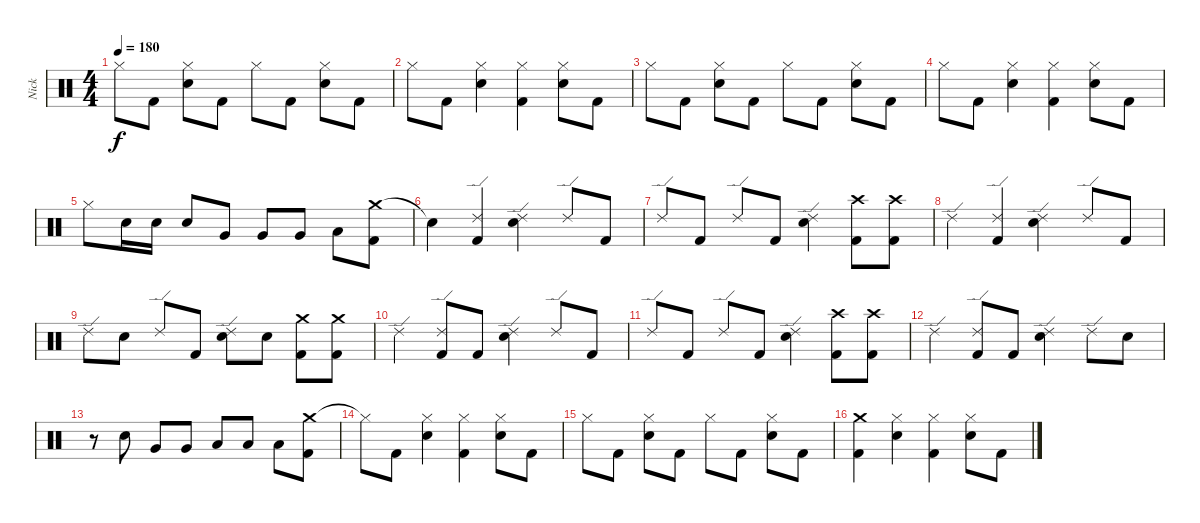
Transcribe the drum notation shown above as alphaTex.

\track ("Nick" "Nick") {instrument percussion}
\staff {score}
\articulation defaults
\ts (4 4)
\tempo 180
\clef neutral
\ks c "Hi-Hat (closed)".8{dy f} "Kick (hit) 2".8
("Hi-Hat (closed)" "Electric Snare (hit)").8 "Kick (hit) 2".8 "Hi-Hat (closed)".8 "Kick (hit) 2".8 ("Hi-Hat (closed)" "Electric Snare (hit)").8 "Kick (hit) 2".8 |
"Hi-Hat (closed)".8 "Kick (hit) 2".8 ("Hi-Hat (closed)" "Electric Snare (hit)").4 ("Hi-Hat (closed)" "Kick (hit) 2").4 ("Hi-Hat (closed)" "Electric Snare (hit)").8 "Kick (hit) 2".8 |
"Hi-Hat (closed)".8 "Kick (hit) 2".8 ("Hi-Hat (closed)" "Electric Snare (hit)").8 "Kick (hit) 2".8 "Hi-Hat (closed)".8 "Kick (hit) 2".8 ("Hi-Hat (closed)" "Electric Snare (hit)").8 "Kick (hit) 2".8 |
"Hi-Hat (closed)".8 "Kick (hit) 2".8 ("Hi-Hat (closed)" "Electric Snare (hit)").4 ("Hi-Hat (closed)" "Kick (hit) 2").4 ("Hi-Hat (closed)" "Electric Snare (hit)").8 "Kick (hit) 2".8 |
"Hi-Hat (closed)".8 "Electric Snare (hit)".16 "Electric Snare (hit)".16 "Electric Snare (hit)".8 "Very Low Tom (hit)".8 "Very Low Tom (hit)".8 "Very Low Tom (hit)".8 "Low Floor Tom (hit)".8 ("Crash medium (hit)" "Kick (hit) 2").8 |
"Snare (hit)"{t}.4 ("Ride (edge) 2" "Kick (hit) 2").4 ("Ride (edge) 2" "Electric Snare (hit)").4 "Ride (edge) 2".8 "Kick (hit) 2".8 |
"Ride (edge) 2".8 "Kick (hit) 2".8 "Ride (edge) 2".8 "Kick (hit) 2".8 ("Ride (edge) 2" "Electric Snare (hit)").4 ("Crash high (hit)" "Kick (hit) 2").8 ("Crash high (hit)" "Kick (hit) 2").8 |
"Ride (edge) 2".4 ("Ride (edge) 2" "Kick (hit) 2").4 ("Ride (edge) 2" "Electric Snare (hit)").4 "Ride (edge) 2".8 "Kick (hit) 2".8 |
"Ride (edge) 2".8 "Electric Snare (hit)".8 "Ride (edge) 2".8 "Kick (hit) 2".8 ("Ride (edge) 2" "Electric Snare (hit)").8 "Electric Snare (hit)".8 ("Crash medium (hit)" "Kick (hit) 2").8 ("Crash medium (hit)" "Kick (hit) 2").8 |
"Ride (edge) 2".4 ("Ride (edge) 2" "Kick (hit) 2").8 "Kick (hit) 2".8 ("Ride (edge) 2" "Electric Snare (hit)").4 "Ride (edge) 2".8 "Kick (hit) 2".8 |
"Ride (edge) 2".8 "Kick (hit) 2".8 "Ride (edge) 2".8 "Kick (hit) 2".8 ("Ride (edge) 2" "Electric Snare (hit)").4 ("Crash high (hit)" "Kick (hit) 2").8 ("Crash high (hit)" "Kick (hit) 2").8 |
"Ride (edge) 2".4 ("Ride (edge) 2" "Kick (hit) 2").8 "Kick (hit) 2".8 ("Ride (edge) 2" "Electric Snare (hit)").4 "Ride (edge) 2".8 "Electric Snare (hit)".8 |
r.8 "Electric Snare (hit)".8 "Very Low Tom (hit)".8 "Very Low Tom (hit)".8 "Low Floor Tom (hit)".8 "Low Floor Tom (hit)".8 "Low Floor Tom (hit)".8 ("Crash medium (hit)" "Kick (hit) 2").8 |
"Hi-Hat (closed)"{t}.8 "Kick (hit) 2".8 ("Hi-Hat (closed)" "Electric Snare (hit)").4 ("Hi-Hat (closed)" "Kick (hit) 2").4 ("Hi-Hat (closed)" "Electric Snare (hit)").8 "Kick (hit) 2".8 |
"Hi-Hat (closed)".8 "Kick (hit) 2".8 ("Hi-Hat (closed)" "Electric Snare (hit)").8 "Kick (hit) 2".8 "Hi-Hat (closed)".8 "Kick (hit) 2".8 ("Hi-Hat (closed)" "Electric Snare (hit)").8 "Kick (hit) 2".8 |
("Crash medium (hit)" "Kick (hit) 2").4 ("Hi-Hat (closed)" "Electric Snare (hit)").4 ("Hi-Hat (closed)" "Kick (hit) 2").4 ("Hi-Hat (closed)" "Electric Snare (hit)").8 "Kick (hit) 2".8
